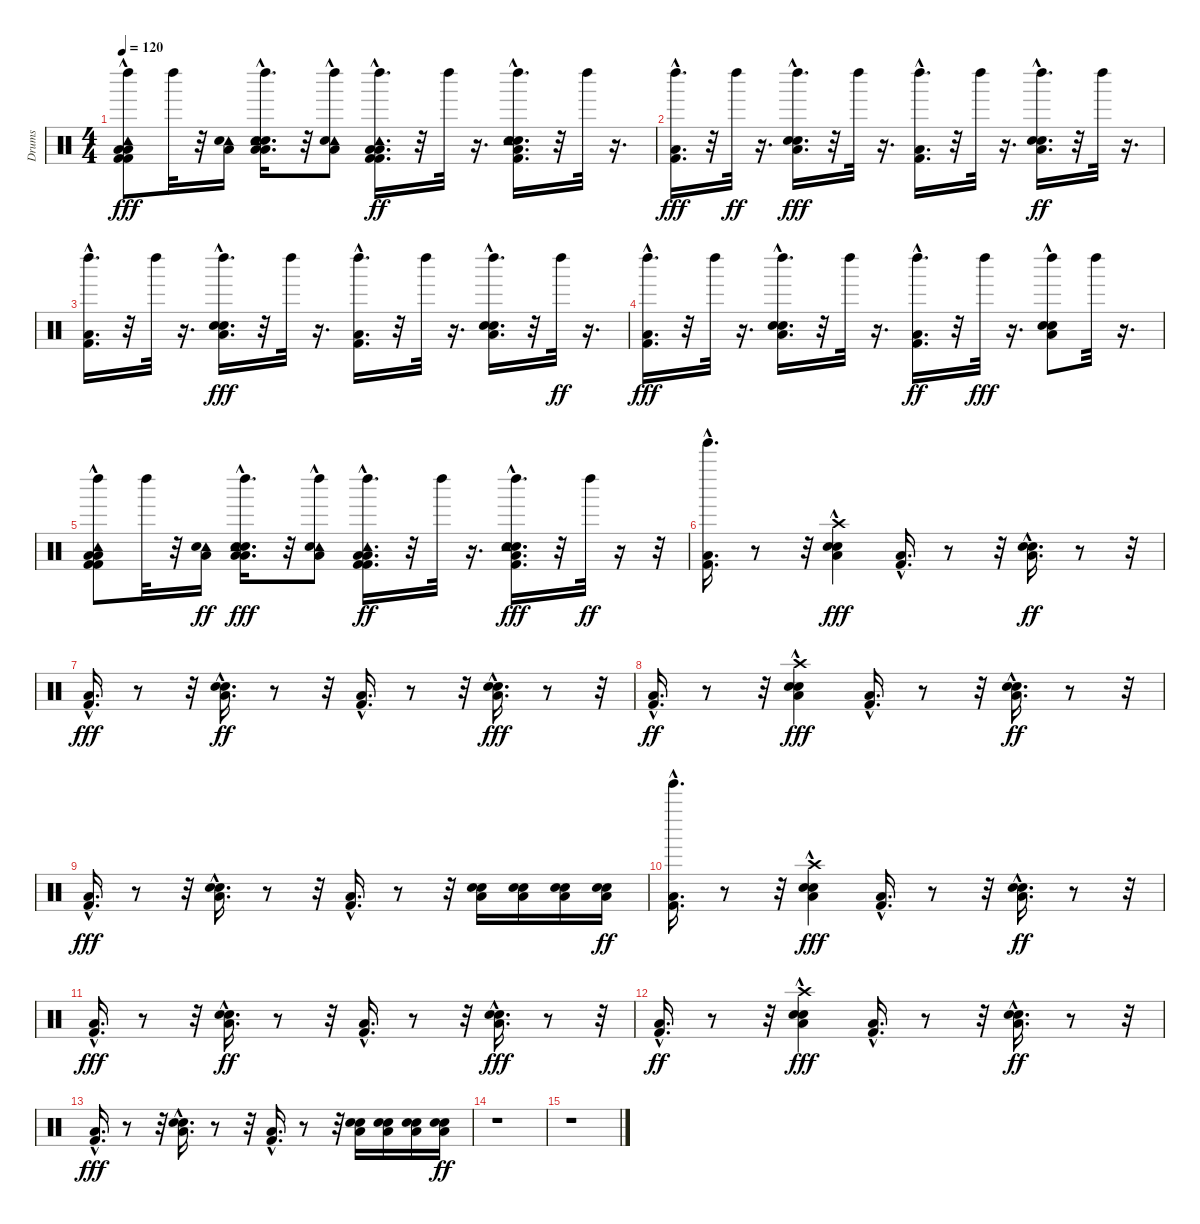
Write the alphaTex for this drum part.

\track ("Drums" "Drums") {instrument percussion}
\staff {score}
\articulation defaults
\ts (4 4)
\tempo 120
\clef neutral
\ks c
("Left Maraca (hit)" "Low Floor Tom (hit)"{hac} "Kick (hit) 2" "Tambourine (hit)" "Low Floor Tom (hit)"{hac} "Kick (hit) 2").8{dy fff} "Left Maraca (hit)".32 r.32 ("Tambourine (hit)" "Low Floor Tom (hit)" "Snare (hit) 2").16 ("Left Maraca (hit)" "Electric Snare (hit)"{hac} "Low Floor Tom (hit)"{hac} "Snare (hit) 2"{hac} "Tambourine (hit)" "Low Floor Tom (hit)"{hac}).16{d} r.32 ("Left Maraca (hit)" "Tambourine (hit)" "Low Floor Tom (hit)" "Snare (hit) 2"{hac}).8 ("Left Maraca (hit)" "Low Floor Tom (hit)"{hac} "Kick (hit) 2"{hac} "Tambourine (hit)" "Low Floor Tom (hit)"{hac} "Kick (hit) 2"{hac}).16{d dy ff} r.32 "Left Maraca (hit)".32 r.16{d} ("Left Maraca (hit)" "Electric Snare (hit)"{hac} "Low Floor Tom (hit)"{hac} "Snare (hit) 2"{hac} "Tambourine (hit)" "Kick (hit) 2").16{d} r.32 "Left Maraca (hit)".32 r.16{d} |
("Left Maraca (hit)" "Low Floor Tom (hit)"{hac} "Kick (hit) 2"{hac}).16{d dy fff} r.32 "Left Maraca (hit)".32{dy ff} r.16{d} ("Left Maraca (hit)" "Electric Snare (hit)"{hac} "Low Floor Tom (hit)"{hac} "Snare (hit) 2"{hac}).16{d dy fff} r.32 "Left Maraca (hit)".32 r.16{d} ("Left Maraca (hit)" "Low Floor Tom (hit)"{hac} "Kick (hit) 2"{hac}).16{d} r.32 "Left Maraca (hit)".32 r.16{d} ("Left Maraca (hit)" "Electric Snare (hit)"{hac} "Low Floor Tom (hit)"{hac} "Snare (hit) 2"{hac}).16{d dy ff} r.32 "Left Maraca (hit)".32 r.16{d} |
("Left Maraca (hit)" "Low Floor Tom (hit)"{hac} "Kick (hit) 2"{hac}).16{d} r.32 "Left Maraca (hit)".32 r.16{d} ("Left Maraca (hit)" "Electric Snare (hit)"{hac} "Low Floor Tom (hit)"{hac} "Snare (hit) 2"{hac}).16{d dy fff} r.32 "Left Maraca (hit)".32 r.16{d} ("Left Maraca (hit)" "Low Floor Tom (hit)"{hac} "Kick (hit) 2"{hac}).16{d} r.32 "Left Maraca (hit)".32 r.16{d} ("Left Maraca (hit)" "Electric Snare (hit)"{hac} "Low Floor Tom (hit)"{hac} "Snare (hit) 2"{hac}).16{d} r.32 "Left Maraca (hit)".32{dy ff} r.16{d} |
("Left Maraca (hit)" "Low Floor Tom (hit)"{hac} "Kick (hit) 2"{hac}).16{d dy fff} r.32 "Left Maraca (hit)".32 r.16{d} ("Left Maraca (hit)" "Electric Snare (hit)"{hac} "Low Floor Tom (hit)"{hac} "Snare (hit) 2"{hac}).16{d} r.32 "Left Maraca (hit)".32 r.16{d} ("Left Maraca (hit)" "Low Floor Tom (hit)"{hac} "Kick (hit) 2"{hac}).16{d dy ff} r.32 "Left Maraca (hit)".32{dy fff} r.16{d} ("Left Maraca (hit)" "Electric Snare (hit)"{hac} "Low Floor Tom (hit)"{hac} "Snare (hit) 2").8 "Left Maraca (hit)".32 r.16{d} |
("Left Maraca (hit)" "Low Floor Tom (hit)"{hac} "Kick (hit) 2" "Tambourine (hit)" "Low Floor Tom (hit)"{hac} "Kick (hit) 2").8 "Left Maraca (hit)".32 r.32 ("Tambourine (hit)" "Low Floor Tom (hit)" "Snare (hit) 2").16{dy ff} ("Left Maraca (hit)" "Electric Snare (hit)"{hac} "Low Floor Tom (hit)"{hac} "Snare (hit) 2"{hac} "Tambourine (hit)" "Low Floor Tom (hit)"{hac}).16{d dy fff} r.32 ("Left Maraca (hit)" "Tambourine (hit)" "Low Floor Tom (hit)" "Snare (hit) 2"{hac}).8 ("Left Maraca (hit)" "Low Floor Tom (hit)"{hac} "Kick (hit) 2"{hac} "Tambourine (hit)" "Low Floor Tom (hit)"{hac} "Kick (hit) 2"{hac}).16{d dy ff} r.32 "Left Maraca (hit)".32 r.16{d} ("Left Maraca (hit)" "Electric Snare (hit)"{hac} "Low Floor Tom (hit)"{hac} "Snare (hit) 2"{hac} "Tambourine (hit)" "Kick (hit) 2").16{d dy fff} r.32 "Left Maraca (hit)".32{dy ff} r.16 r.32 |
("Tinkle Bell (hit)" "Low Floor Tom (hit)"{hac} "Kick (hit) 2"{hac}).16{d volume 12} r.8 r.32 ("Crash high (hit)" "Electric Snare (hit)"{hac} "Low Floor Tom (hit)"{hac} "Snare (hit) 2"{hac}).4{dy fff} ("Low Floor Tom (hit)"{hac} "Kick (hit) 2"{hac}).16{d} r.8 r.32 ("Electric Snare (hit)"{hac} "Low Floor Tom (hit)"{hac} "Snare (hit) 2"{hac}).16{d dy ff} r.8 r.32 |
("Low Floor Tom (hit)"{hac} "Kick (hit) 2"{hac}).16{d dy fff volume 11} r.8 r.32 ("Electric Snare (hit)"{hac} "Low Floor Tom (hit)"{hac} "Snare (hit) 2"{hac}).16{d dy ff} r.8 r.32 ("Low Floor Tom (hit)"{hac} "Kick (hit) 2"{hac}).16{d} r.8 r.32 ("Electric Snare (hit)"{hac} "Low Floor Tom (hit)"{hac} "Snare (hit) 2"{hac}).16{d dy fff} r.8 r.32 |
("Low Floor Tom (hit)"{hac} "Kick (hit) 2"{hac}).16{d dy ff volume 9} r.8 r.32 ("Crash high (hit)" "Electric Snare (hit)"{hac} "Low Floor Tom (hit)"{hac} "Snare (hit) 2"{hac}).4{dy fff} ("Low Floor Tom (hit)"{hac} "Kick (hit) 2"{hac}).16{d} r.8 r.32 ("Electric Snare (hit)"{hac} "Low Floor Tom (hit)"{hac} "Snare (hit) 2"{hac}).16{d dy ff} r.8 r.32 |
("Low Floor Tom (hit)"{hac} "Kick (hit) 2"{hac}).16{d dy fff volume 8} r.8 r.32 ("Electric Snare (hit)"{hac} "Low Floor Tom (hit)"{hac} "Snare (hit) 2"{hac}).16{d} r.8 r.32 ("Low Floor Tom (hit)"{hac} "Kick (hit) 2"{hac}).16{d} r.8 r.32 ("Electric Snare (hit)" "Low Floor Tom (hit)" "Snare (hit) 2").16 ("Electric Snare (hit)" "Snare (hit) 2" "Low Floor Tom (hit)").16 ("Electric Snare (hit)" "Low Floor Tom (hit)" "Snare (hit) 2").16 ("Low Floor Tom (hit)" "Electric Snare (hit)" "Snare (hit) 2").16{dy ff} |
("Tinkle Bell (hit)" "Low Floor Tom (hit)"{hac} "Kick (hit) 2"{hac}).16{d volume 7} r.8 r.32 ("Crash high (hit)" "Electric Snare (hit)"{hac} "Low Floor Tom (hit)"{hac} "Snare (hit) 2"{hac}).4{dy fff} ("Low Floor Tom (hit)"{hac} "Kick (hit) 2"{hac}).16{d} r.8 r.32 ("Electric Snare (hit)"{hac} "Low Floor Tom (hit)"{hac} "Snare (hit) 2"{hac}).16{d dy ff} r.8 r.32 |
("Low Floor Tom (hit)"{hac} "Kick (hit) 2"{hac}).16{d dy fff volume 6} r.8 r.32 ("Electric Snare (hit)"{hac} "Low Floor Tom (hit)"{hac} "Snare (hit) 2"{hac}).16{d dy ff} r.8 r.32 ("Low Floor Tom (hit)"{hac} "Kick (hit) 2"{hac}).16{d} r.8 r.32 ("Electric Snare (hit)"{hac} "Low Floor Tom (hit)"{hac} "Snare (hit) 2"{hac}).16{d dy fff} r.8 r.32 |
("Low Floor Tom (hit)"{hac} "Kick (hit) 2"{hac}).16{d dy ff volume 5} r.8 r.32 ("Crash high (hit)" "Electric Snare (hit)"{hac} "Low Floor Tom (hit)"{hac} "Snare (hit) 2"{hac}).4{dy fff} ("Low Floor Tom (hit)"{hac} "Kick (hit) 2"{hac}).16{d} r.8 r.32 ("Electric Snare (hit)"{hac} "Low Floor Tom (hit)"{hac} "Snare (hit) 2"{hac}).16{d dy ff} r.8 r.32 |
("Low Floor Tom (hit)"{hac} "Kick (hit) 2"{hac}).16{d dy fff volume 4} r.8 r.32 ("Electric Snare (hit)"{hac} "Low Floor Tom (hit)"{hac} "Snare (hit) 2"{hac}).16{d} r.8 r.32 ("Low Floor Tom (hit)"{hac} "Kick (hit) 2"{hac}).16{d} r.8 r.32 ("Electric Snare (hit)" "Low Floor Tom (hit)" "Snare (hit) 2").16 ("Electric Snare (hit)" "Snare (hit) 2" "Low Floor Tom (hit)").16 ("Electric Snare (hit)" "Low Floor Tom (hit)" "Snare (hit) 2").16 ("Low Floor Tom (hit)" "Electric Snare (hit)" "Snare (hit) 2").16{dy ff} |
r.1 |
r.1
